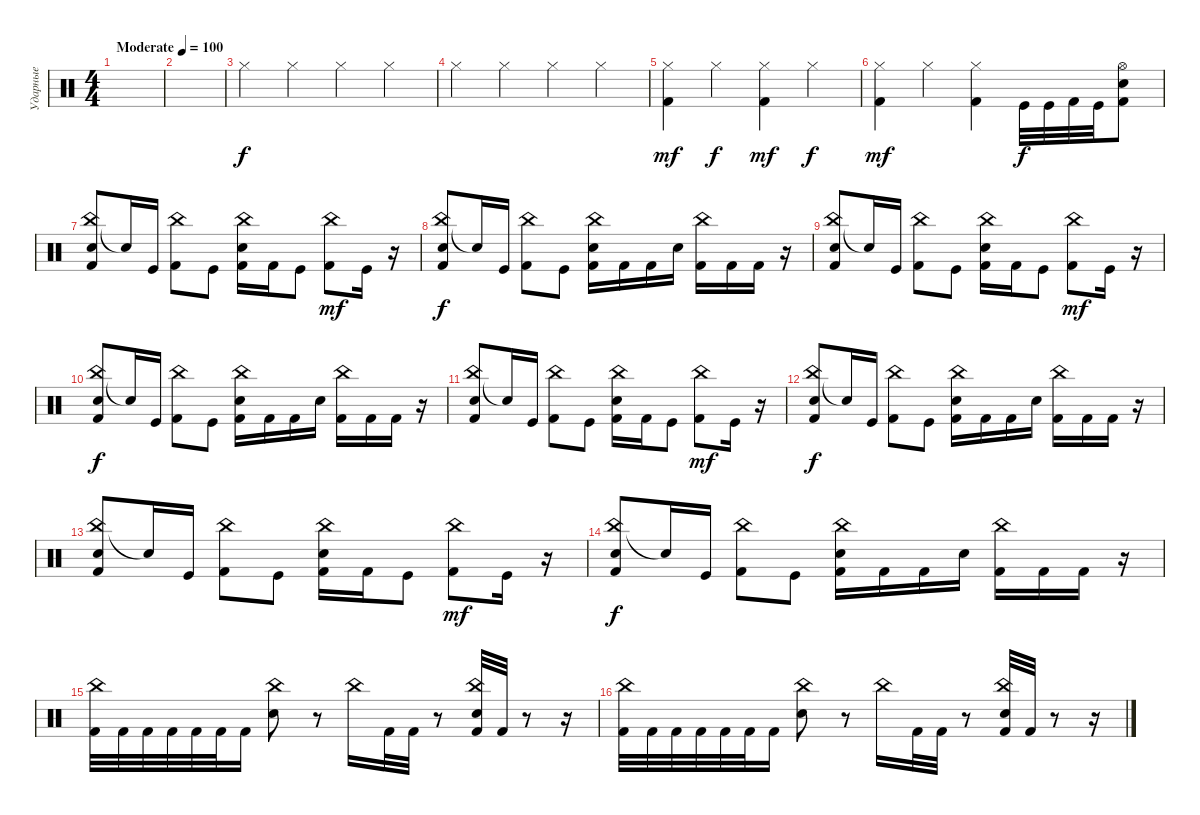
\track ("Ударные" "Ударные") {instrument percussion}
\staff {score}
\articulation defaults
\ts (4 4)
\tempo (100 "Moderate")
\clef neutral
\ks c
|
|
"Hi-Hat (closed)".4 "Hi-Hat (closed)".4 "Hi-Hat (closed)".4 "Hi-Hat (closed)".4 |
\ks aminor "Hi-Hat (closed)".4 "Hi-Hat (closed)".4 "Hi-Hat (closed)".4 "Hi-Hat (closed)".4
|
("Hi-Hat (closed)" "Kick (hit) 2").4{dy mf} "Hi-Hat (closed)".4{dy f} ("Hi-Hat (closed)" "Kick (hit) 2").4{dy mf} "Hi-Hat (closed)".4{dy f} |
\ks c
("Hi-Hat (closed)" "Kick (hit) 2").4{dy mf} "Hi-Hat (closed)".4 ("Hi-Hat (closed)" "Kick (hit) 2").4 "Kick (hit)".32{dy f} "Kick (hit)".32 "Kick (hit) 2".32 "Kick (hit)".32 ("Snare (hit) 2" "Hi-Hat (open)" "Kick (hit) 2").8 |
("China (hit)" "Electric Snare (hit)" "Kick (hit) 2").8 "Snare (hit)"{t}.16 "Kick (hit)".16 ("China (hit)" "Kick (hit) 2").8 "Kick (hit)".8 ("China (hit)" "Snare (hit) 2" "Kick (hit) 2").16 "Kick (hit) 2".16 "Kick (hit)".8 ("China (hit)" "Kick (hit) 2").8{dy mf} "Kick (hit)".16 r.16 |
("China (hit)" "Electric Snare (hit)" "Kick (hit) 2").8{dy f} "Snare (hit)"{t}.16 "Kick (hit)".16 ("China (hit)" "Kick (hit) 2").8 "Kick (hit)".8 ("China (hit)" "Snare (hit) 2" "Kick (hit) 2").16 "Kick (hit) 2".16 "Kick (hit) 2".16 "Electric Snare (hit)".16 ("China (hit)" "Kick (hit) 2").16 "Kick (hit) 2".16 "Kick (hit) 2".16 r.16 |
("China (hit)" "Electric Snare (hit)" "Kick (hit) 2").8 "Snare (hit)"{t}.16 "Kick (hit)".16 ("China (hit)" "Kick (hit) 2").8 "Kick (hit)".8 ("China (hit)" "Snare (hit) 2" "Kick (hit) 2").16 "Kick (hit) 2".16 "Kick (hit)".8 ("China (hit)" "Kick (hit) 2").8{dy mf} "Kick (hit)".16 r.16 |
("China (hit)" "Electric Snare (hit)" "Kick (hit) 2").8{dy f} "Snare (hit)"{t}.16 "Kick (hit)".16 ("China (hit)" "Kick (hit) 2").8 "Kick (hit)".8 ("China (hit)" "Snare (hit) 2" "Kick (hit) 2").16 "Kick (hit) 2".16 "Kick (hit) 2".16 "Electric Snare (hit)".16 ("China (hit)" "Kick (hit) 2").16 "Kick (hit) 2".16 "Kick (hit) 2".16 r.16 |
("China (hit)" "Electric Snare (hit)" "Kick (hit) 2").8 "Snare (hit)"{t}.16 "Kick (hit)".16 ("China (hit)" "Kick (hit) 2").8 "Kick (hit)".8 ("China (hit)" "Snare (hit) 2" "Kick (hit) 2").16 "Kick (hit) 2".16 "Kick (hit)".8 ("China (hit)" "Kick (hit) 2").8{dy mf} "Kick (hit)".16 r.16 |
("China (hit)" "Electric Snare (hit)" "Kick (hit) 2").8{dy f} "Snare (hit)"{t}.16 "Kick (hit)".16 ("China (hit)" "Kick (hit) 2").8 "Kick (hit)".8 ("China (hit)" "Snare (hit) 2" "Kick (hit) 2").16 "Kick (hit) 2".16 "Kick (hit) 2".16 "Electric Snare (hit)".16 ("China (hit)" "Kick (hit) 2").16 "Kick (hit) 2".16 "Kick (hit) 2".16 r.16 |
("China (hit)" "Electric Snare (hit)" "Kick (hit) 2").8 "Snare (hit)"{t}.16 "Kick (hit)".16 ("China (hit)" "Kick (hit) 2").8 "Kick (hit)".8 ("China (hit)" "Snare (hit) 2" "Kick (hit) 2").16 "Kick (hit) 2".16 "Kick (hit)".8 ("China (hit)" "Kick (hit) 2").8{dy mf} "Kick (hit)".16 r.16 |
("China (hit)" "Electric Snare (hit)" "Kick (hit) 2").8{dy f} "Snare (hit)"{t}.16 "Kick (hit)".16 ("China (hit)" "Kick (hit) 2").8 "Kick (hit)".8 ("China (hit)" "Snare (hit) 2" "Kick (hit) 2").16 "Kick (hit) 2".16 "Kick (hit) 2".16 "Electric Snare (hit)".16 ("China (hit)" "Kick (hit) 2").16 "Kick (hit) 2".16 "Kick (hit) 2".16 r.16 |
("China (hit)" "Kick (hit) 2").32 "Kick (hit) 2".32 "Kick (hit) 2".32 "Kick (hit) 2".32 "Kick (hit) 2".32 "Kick (hit) 2".32 "Kick (hit) 2".16 ("China (hit)" "Electric Snare (hit)").8 r.8 "China (hit)".16 "Kick (hit) 2".32 "Kick (hit) 2".32 r.8 ("China (hit)" "Electric Snare (hit)" "Kick (hit) 2").32 "Kick (hit) 2".32 r.8 r.16 |
("China (hit)" "Kick (hit) 2").32 "Kick (hit) 2".32 "Kick (hit) 2".32 "Kick (hit) 2".32 "Kick (hit) 2".32 "Kick (hit) 2".32 "Kick (hit) 2".16 ("China (hit)" "Electric Snare (hit)").8 r.8 "China (hit)".16 "Kick (hit) 2".32 "Kick (hit) 2".32 r.8 ("China (hit)" "Electric Snare (hit)" "Kick (hit) 2").32 "Kick (hit) 2".32 r.8 r.16
